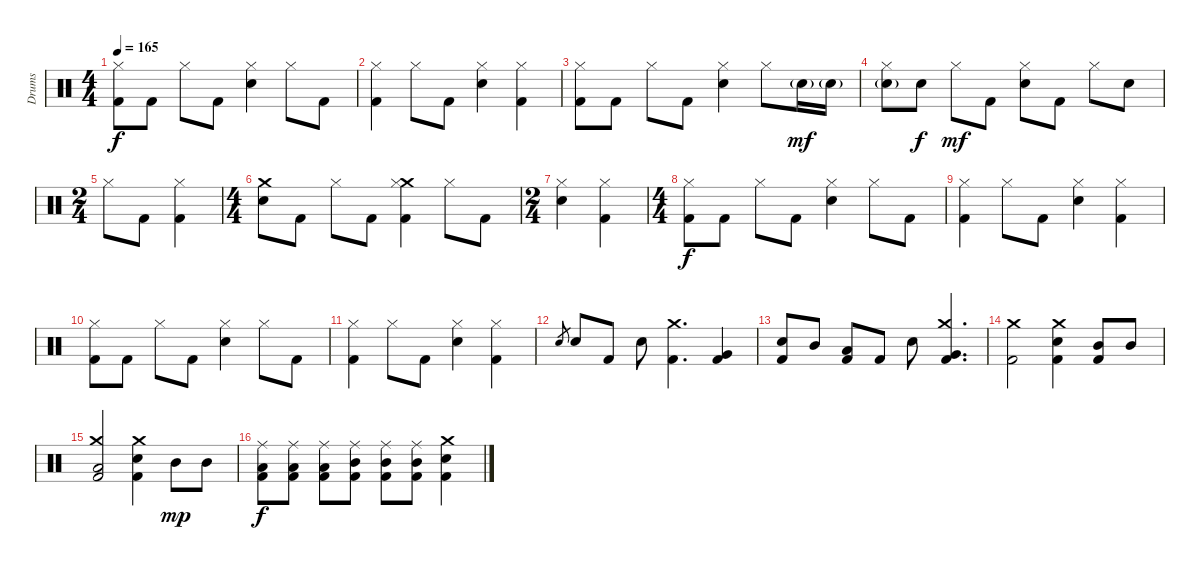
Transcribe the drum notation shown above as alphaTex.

\track ("Drums" "Drums") {instrument percussion}
\staff {score}
\articulation defaults
\ts (4 4)
\tempo 165
\clef neutral
\ks c
("Hi-Hat (closed)" "Kick (hit) 2").8{dy f} "Kick (hit) 2".8 "Hi-Hat (closed)".8 "Kick (hit) 2".8 ("Hi-Hat (closed)" "Electric Snare (hit)").4 "Hi-Hat (closed)".8 "Kick (hit) 2".8 |
("Hi-Hat (closed)" "Kick (hit) 2").4 "Hi-Hat (closed)".8 "Kick (hit) 2".8 ("Hi-Hat (closed)" "Electric Snare (hit)").4 ("Hi-Hat (closed)" "Kick (hit) 2").4 |
("Hi-Hat (closed)" "Kick (hit) 2").8 "Kick (hit) 2".8 "Hi-Hat (closed)".8 "Kick (hit) 2".8 ("Hi-Hat (closed)" "Electric Snare (hit)").4 "Hi-Hat (closed)".8 "Electric Snare (hit)"{g}.16{dy mf} "Electric Snare (hit)"{g}.16 |
("Hi-Hat (closed)" "Electric Snare (hit)"{g}).8 "Electric Snare (hit)".8{dy f} "Hi-Hat (closed)".8{dy mf} "Kick (hit) 2".8 ("Hi-Hat (closed)" "Electric Snare (hit)").8 "Kick (hit) 2".8 "Hi-Hat (closed)".8 "Electric Snare (hit)".8 |
\ts (2 4)
"Hi-Hat (closed)".8 "Kick (hit) 2".8 ("Hi-Hat (closed)" "Kick (hit) 2").4 |
\ts (4 4)
("Crash medium (hit)" "Electric Snare (hit)").8 "Kick (hit) 2".8 "Hi-Hat (closed)".8 "Kick (hit) 2".8 ("Crash medium (hit)" "Hi-Hat (closed)" "Kick (hit) 2").4 "Hi-Hat (closed)".8 "Kick (hit) 2".8 |
\ts (2 4)
("Hi-Hat (closed)" "Electric Snare (hit)").4 ("Hi-Hat (closed)" "Kick (hit) 2").4 |
\ts (4 4)
("Hi-Hat (closed)" "Kick (hit) 2").8{dy f} "Kick (hit) 2".8 "Hi-Hat (closed)".8 "Kick (hit) 2".8 ("Hi-Hat (closed)" "Electric Snare (hit)").4 "Hi-Hat (closed)".8 "Kick (hit) 2".8 |
("Hi-Hat (closed)" "Kick (hit) 2").4 "Hi-Hat (closed)".8 "Kick (hit) 2".8 ("Hi-Hat (closed)" "Electric Snare (hit)").4 ("Hi-Hat (closed)" "Kick (hit) 2").4 |
("Hi-Hat (closed)" "Kick (hit) 2").8 "Kick (hit) 2".8 "Hi-Hat (closed)".8 "Kick (hit) 2".8 ("Hi-Hat (closed)" "Electric Snare (hit)").4 "Hi-Hat (closed)".8 "Kick (hit) 2".8 |
("Hi-Hat (closed)" "Kick (hit) 2").4 "Hi-Hat (closed)".8 "Kick (hit) 2".8 ("Hi-Hat (closed)" "Electric Snare (hit)").4 ("Hi-Hat (closed)" "Kick (hit) 2").4 |
"Electric Snare (hit)".8{gr} "Electric Snare (hit)".8 "Kick (hit) 2".8 "Electric Snare (hit)".8 ("Crash medium (hit)" "Kick (hit) 2").4{d} ("Very Low Tom (hit)" "Kick (hit) 2").4 |
("Electric Snare (hit)" "Kick (hit) 2").8 "Mid Tom (hit)".8 ("Low Tom (hit)" "Kick (hit) 2").8 "Kick (hit) 2".8 "Electric Snare (hit)".8 ("Crash medium (hit)" "Very Low Tom (hit)" "Kick (hit) 2").4{d} |
("Crash medium (hit)" "Kick (hit) 2").2 ("Crash medium (hit)" "Electric Snare (hit)" "Kick (hit) 2").4 ("Mid Tom (hit)" "Kick (hit) 2").8 "Mid Tom (hit)".8 |
("Crash medium (hit)" "Low Tom (hit)" "Kick (hit) 2").2 ("Crash medium (hit)" "Electric Snare (hit)" "Kick (hit) 2").4 "Mid Tom (hit)".8{dy mp} "Mid Tom (hit)".8 |
("Ride (middle)" "Low Tom (hit)" "Kick (hit) 2").8{dy f} ("Ride (middle)" "Low Tom (hit)" "Kick (hit) 2").8 ("Ride (middle)" "Low Tom (hit)" "Kick (hit) 2").8 ("Ride (middle)" "Mid Tom (hit)" "Kick (hit) 2").8 ("Ride (middle)" "Mid Tom (hit)" "Kick (hit) 2").8 ("Ride (middle)" "Mid Tom (hit)" "Kick (hit) 2").8 ("Crash medium (hit)" "Electric Snare (hit)" "Kick (hit) 2").4
